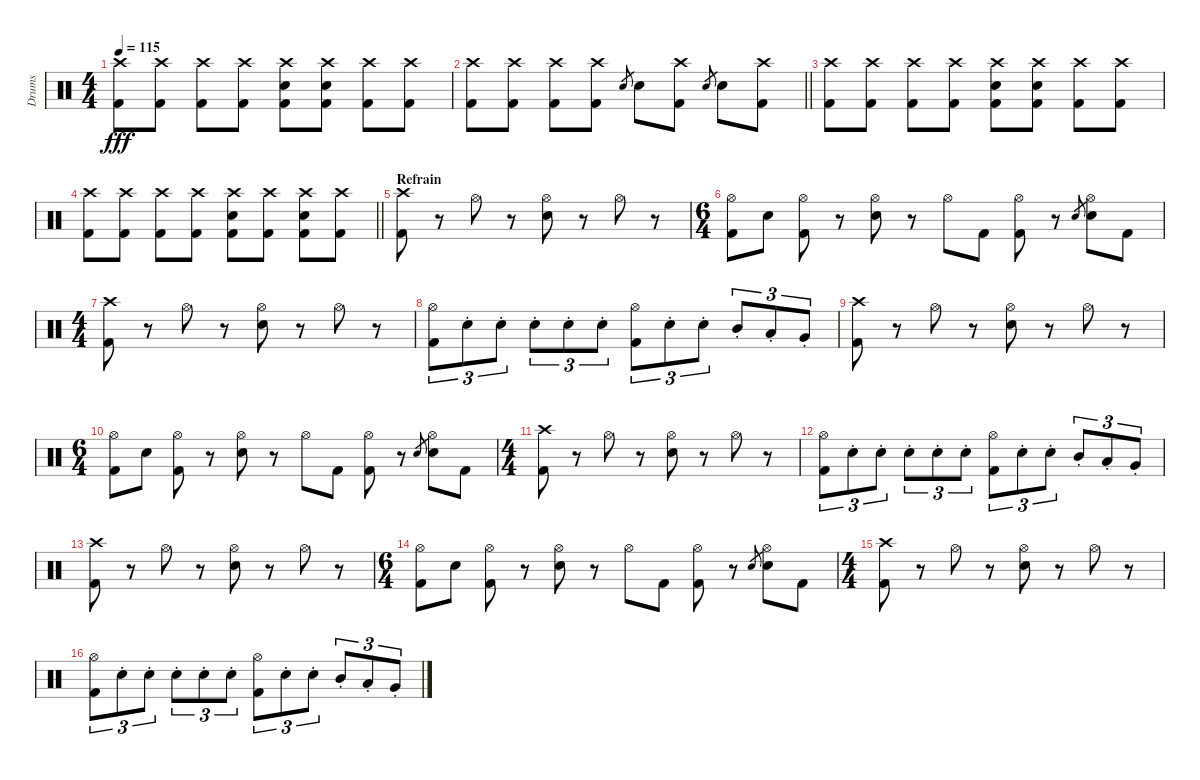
\track ("Drums" "Drums") {instrument percussion}
\staff {score}
\articulation defaults
\ts (4 4)
\tempo 115
\clef neutral
\ks c
("Crash high (hit)" "Kick (hit) 2").8{dy fff} ("Crash high (hit)" "Kick (hit) 2").8 ("Crash high (hit)" "Kick (hit) 2").8 ("Crash high (hit)" "Kick (hit) 2").8 ("Crash high (hit)" "Electric Snare (hit)" "Kick (hit) 2").8 ("Crash high (hit)" "Electric Snare (hit)" "Kick (hit) 2").8 ("Crash high (hit)" "Kick (hit) 2").8 ("Crash high (hit)" "Kick (hit) 2").8 |
\barLineRight lightlight
("Crash high (hit)" "Kick (hit) 2").8 ("Crash high (hit)" "Kick (hit) 2").8 ("Crash high (hit)" "Kick (hit) 2").8 ("Crash high (hit)" "Kick (hit) 2").8 "Electric Snare (hit)".8{gr} "Electric Snare (hit)".8 ("Crash high (hit)" "Kick (hit) 2").8 "Electric Snare (hit)".8{gr} "Electric Snare (hit)".8 ("Crash high (hit)" "Kick (hit) 2").8 |
("Crash high (hit)" "Kick (hit) 2").8 ("Crash high (hit)" "Kick (hit) 2").8 ("Crash high (hit)" "Kick (hit) 2").8 ("Crash high (hit)" "Kick (hit) 2").8 ("Crash high (hit)" "Electric Snare (hit)" "Kick (hit) 2").8 ("Crash high (hit)" "Electric Snare (hit)" "Kick (hit) 2").8 ("Crash high (hit)" "Kick (hit) 2").8 ("Crash high (hit)" "Kick (hit) 2").8 |
\barLineRight lightlight
("Crash high (hit)" "Kick (hit) 2").8 ("Crash high (hit)" "Kick (hit) 2").8 ("Crash high (hit)" "Kick (hit) 2").8 ("Crash high (hit)" "Kick (hit) 2").8 ("Crash high (hit)" "Electric Snare (hit)" "Kick (hit) 2").8 ("Crash high (hit)" "Kick (hit) 2").8 ("Crash high (hit)" "Electric Snare (hit)" "Kick (hit) 2").8 ("Crash high (hit)" "Kick (hit) 2").8 |
\section ("" "Refrain")
("Crash high (hit)" "Kick (hit) 2").8 r.8 "Hi-Hat (open)".8 r.8 ("Hi-Hat (open)" "Electric Snare (hit)").8 r.8 "Hi-Hat (open)".8 r.8 |
\ts (6 4)
("Hi-Hat (open)" "Kick (hit) 2").8 "Electric Snare (hit)".8 ("Hi-Hat (open)" "Kick (hit) 2").8 r.8 ("Hi-Hat (open)" "Electric Snare (hit)").8 r.8 "Hi-Hat (open)".8 "Kick (hit) 2".8 ("Hi-Hat (open)" "Kick (hit) 2").8 r.8 "Electric Snare (hit)".8{gr} ("Hi-Hat (open)" "Electric Snare (hit)").8 "Kick (hit) 2".8 |
\ts (4 4)
("Crash high (hit)" "Kick (hit) 2").8 r.8 "Hi-Hat (open)".8 r.8 ("Hi-Hat (open)" "Electric Snare (hit)").8 r.8 "Hi-Hat (open)".8 r.8 |
("Hi-Hat (open)" "Kick (hit) 2").8{tu (3 2)} "Electric Snare (hit)"{st}.8{tu (3 2)} "Electric Snare (hit)"{st}.8{tu (3 2)} "Electric Snare (hit)"{st}.8{tu (3 2)} "Electric Snare (hit)"{st}.8{tu (3 2)} "Electric Snare (hit)"{st}.8{tu (3 2)} ("Hi-Hat (open)" "Kick (hit) 2").8{tu (3 2)} "Electric Snare (hit)"{st}.8{tu (3 2)} "Electric Snare (hit)"{st}.8{tu (3 2)} "Mid Tom (hit)"{st}.8{tu (3 2)} "Low Tom (hit)"{st}.8{tu (3 2)} "Very Low Tom (hit)"{st}.8{tu (3 2)} |
("Crash high (hit)" "Kick (hit) 2").8 r.8 "Hi-Hat (open)".8 r.8 ("Hi-Hat (open)" "Electric Snare (hit)").8 r.8 "Hi-Hat (open)".8 r.8 |
\ts (6 4)
("Hi-Hat (open)" "Kick (hit) 2").8 "Electric Snare (hit)".8 ("Hi-Hat (open)" "Kick (hit) 2").8 r.8 ("Hi-Hat (open)" "Electric Snare (hit)").8 r.8 "Hi-Hat (open)".8 "Kick (hit) 2".8 ("Hi-Hat (open)" "Kick (hit) 2").8 r.8 "Electric Snare (hit)".8{gr} ("Hi-Hat (open)" "Electric Snare (hit)").8 "Kick (hit) 2".8 |
\ts (4 4)
("Crash high (hit)" "Kick (hit) 2").8 r.8 "Hi-Hat (open)".8 r.8 ("Hi-Hat (open)" "Electric Snare (hit)").8 r.8 "Hi-Hat (open)".8 r.8 |
("Hi-Hat (open)" "Kick (hit) 2").8{tu (3 2)} "Electric Snare (hit)"{st}.8{tu (3 2)} "Electric Snare (hit)"{st}.8{tu (3 2)} "Electric Snare (hit)"{st}.8{tu (3 2)} "Electric Snare (hit)"{st}.8{tu (3 2)} "Electric Snare (hit)"{st}.8{tu (3 2)} ("Hi-Hat (open)" "Kick (hit) 2").8{tu (3 2)} "Electric Snare (hit)"{st}.8{tu (3 2)} "Electric Snare (hit)"{st}.8{tu (3 2)} "Mid Tom (hit)"{st}.8{tu (3 2)} "Low Tom (hit)"{st}.8{tu (3 2)} "Very Low Tom (hit)"{st}.8{tu (3 2)} |
("Crash high (hit)" "Kick (hit) 2").8 r.8 "Hi-Hat (open)".8 r.8 ("Hi-Hat (open)" "Electric Snare (hit)").8 r.8 "Hi-Hat (open)".8 r.8 |
\ts (6 4)
("Hi-Hat (open)" "Kick (hit) 2").8 "Electric Snare (hit)".8 ("Hi-Hat (open)" "Kick (hit) 2").8 r.8 ("Hi-Hat (open)" "Electric Snare (hit)").8 r.8 "Hi-Hat (open)".8 "Kick (hit) 2".8 ("Hi-Hat (open)" "Kick (hit) 2").8 r.8 "Electric Snare (hit)".8{gr} ("Hi-Hat (open)" "Electric Snare (hit)").8 "Kick (hit) 2".8 |
\ts (4 4)
("Crash high (hit)" "Kick (hit) 2").8 r.8 "Hi-Hat (open)".8 r.8 ("Hi-Hat (open)" "Electric Snare (hit)").8 r.8 "Hi-Hat (open)".8 r.8 |
("Hi-Hat (open)" "Kick (hit) 2").8{tu (3 2)} "Electric Snare (hit)"{st}.8{tu (3 2)} "Electric Snare (hit)"{st}.8{tu (3 2)} "Electric Snare (hit)"{st}.8{tu (3 2)} "Electric Snare (hit)"{st}.8{tu (3 2)} "Electric Snare (hit)"{st}.8{tu (3 2)} ("Hi-Hat (open)" "Kick (hit) 2").8{tu (3 2)} "Electric Snare (hit)"{st}.8{tu (3 2)} "Electric Snare (hit)"{st}.8{tu (3 2)} "Mid Tom (hit)"{st}.8{tu (3 2)} "Low Tom (hit)"{st}.8{tu (3 2)} "Very Low Tom (hit)"{st}.8{tu (3 2)}
